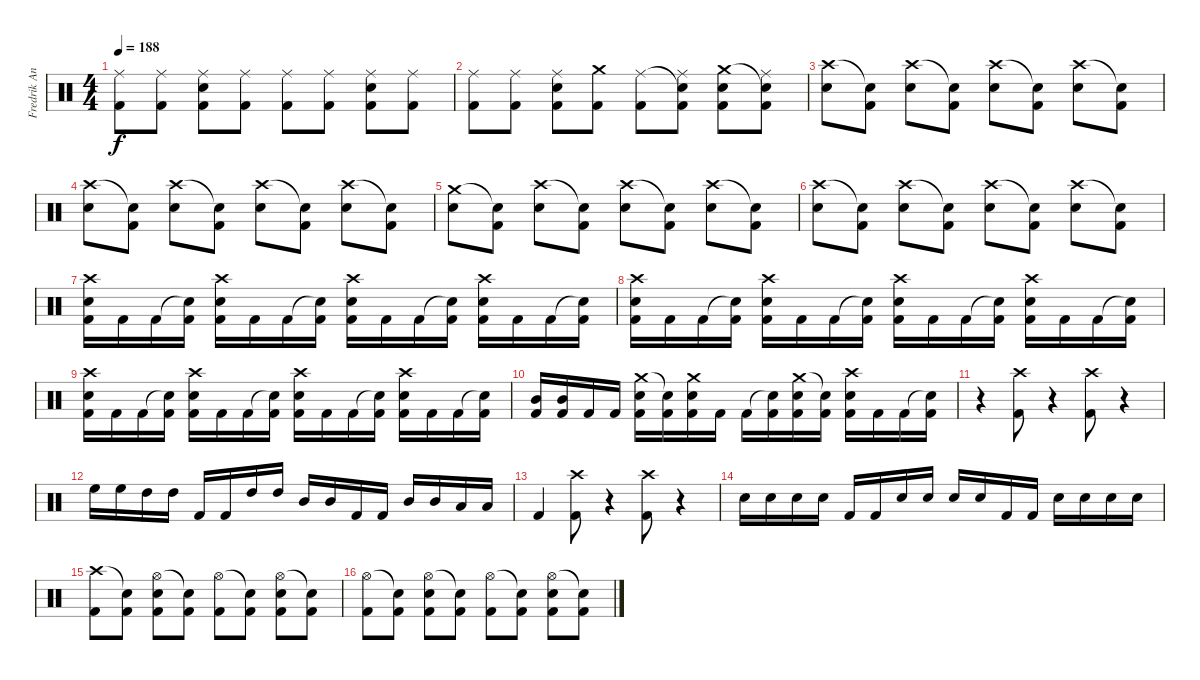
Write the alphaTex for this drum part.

\track ("Fredrik Andersson" "Fredrik An") {instrument percussion}
\staff {score}
\articulation defaults
\ts (4 4)
\tempo 188
\clef neutral
\ks c
("Ride (middle)" "Kick (hit) 2").8{dy f} ("Ride (middle)" "Kick (hit) 2").8 ("Ride (middle)" "Snare (hit) 2" "Kick (hit) 2").8 ("Ride (middle)" "Kick (hit) 2").8 ("Ride (middle)" "Kick (hit) 2").8 ("Ride (middle)" "Kick (hit) 2").8 ("Ride (middle)" "Snare (hit) 2" "Kick (hit) 2").8 ("Ride (middle)" "Kick (hit) 2").8 |
("Ride (middle)" "Kick (hit) 2").8 ("Ride (middle)" "Kick (hit) 2").8 ("Ride (middle)" "Snare (hit) 2" "Kick (hit) 2").8 ("Crash medium (hit)" "Kick (hit) 2").8 ("Ride (middle)" "Kick (hit) 2").8 ("Snare (hit)"{t} "Ride (middle)" "Kick (hit) 2").8 ("Crash medium (hit)" "Snare (hit) 2" "Kick (hit) 2").8 ("Snare (hit)"{t} "Ride (middle)" "Kick (hit) 2").8 |
("Crash high (hit)" "Snare (hit) 2").8 ("Snare (hit)"{t} "Kick (hit) 2").8 ("Crash high (hit)" "Snare (hit) 2").8 ("Snare (hit)"{t} "Kick (hit) 2").8 ("Crash high (hit)" "Snare (hit) 2").8 ("Snare (hit)"{t} "Kick (hit) 2").8 ("Crash high (hit)" "Snare (hit) 2").8 ("Snare (hit)"{t} "Kick (hit) 2").8 |
("Crash high (hit)" "Snare (hit) 2").8 ("Snare (hit)"{t} "Kick (hit) 2").8 ("Crash high (hit)" "Snare (hit) 2").8 ("Snare (hit)"{t} "Kick (hit) 2").8 ("Crash high (hit)" "Snare (hit) 2").8 ("Snare (hit)"{t} "Kick (hit) 2").8 ("Crash high (hit)" "Snare (hit) 2").8 ("Snare (hit)"{t} "Kick (hit) 2").8 |
("Crash medium (hit)" "Snare (hit) 2").8 ("Snare (hit)"{t} "Kick (hit) 2").8 ("Crash high (hit)" "Snare (hit) 2").8 ("Snare (hit)"{t} "Kick (hit) 2").8 ("Crash high (hit)" "Snare (hit) 2").8 ("Snare (hit)"{t} "Kick (hit) 2").8 ("Crash high (hit)" "Snare (hit) 2").8 ("Snare (hit)"{t} "Kick (hit) 2").8 |
("Crash high (hit)" "Snare (hit) 2").8 ("Snare (hit)"{t} "Kick (hit) 2").8 ("Crash high (hit)" "Snare (hit) 2").8 ("Snare (hit)"{t} "Kick (hit) 2").8 ("Crash high (hit)" "Snare (hit) 2").8 ("Snare (hit)"{t} "Kick (hit) 2").8 ("Crash high (hit)" "Snare (hit) 2").8 ("Snare (hit)"{t} "Kick (hit) 2").8 |
("Crash high (hit)" "Snare (hit) 2" "Kick (hit) 2").16 "Kick (hit) 2".16 "Kick (hit) 2".16 ("Snare (hit)"{t} "Kick (hit) 2").16 ("Crash high (hit)" "Snare (hit) 2" "Kick (hit) 2").16 "Kick (hit) 2".16 "Kick (hit) 2".16 ("Snare (hit)"{t} "Kick (hit) 2").16 ("Crash high (hit)" "Snare (hit) 2" "Kick (hit) 2").16 "Kick (hit) 2".16 "Kick (hit) 2".16 ("Snare (hit)"{t} "Kick (hit) 2").16 ("Crash high (hit)" "Snare (hit) 2" "Kick (hit) 2").16 "Kick (hit) 2".16 "Kick (hit) 2".16 ("Snare (hit)"{t} "Kick (hit) 2").16 |
("Crash high (hit)" "Snare (hit) 2" "Kick (hit) 2").16 "Kick (hit) 2".16 "Kick (hit) 2".16 ("Snare (hit)"{t} "Kick (hit) 2").16 ("Crash high (hit)" "Snare (hit) 2" "Kick (hit) 2").16 "Kick (hit) 2".16 "Kick (hit) 2".16 ("Snare (hit)"{t} "Kick (hit) 2").16 ("Crash high (hit)" "Snare (hit) 2" "Kick (hit) 2").16 "Kick (hit) 2".16 "Kick (hit) 2".16 ("Snare (hit)"{t} "Kick (hit) 2").16 ("Crash high (hit)" "Snare (hit) 2" "Kick (hit) 2").16 "Kick (hit) 2".16 "Kick (hit) 2".16 ("Snare (hit)"{t} "Kick (hit) 2").16 |
("Crash high (hit)" "Snare (hit) 2" "Kick (hit) 2").16 "Kick (hit) 2".16 "Kick (hit) 2".16 ("Snare (hit)"{t} "Kick (hit) 2").16 ("Crash high (hit)" "Snare (hit) 2" "Kick (hit) 2").16 "Kick (hit) 2".16 "Kick (hit) 2".16 ("Snare (hit)"{t} "Kick (hit) 2").16 ("Crash high (hit)" "Snare (hit) 2" "Kick (hit) 2").16 "Kick (hit) 2".16 "Kick (hit) 2".16 ("Snare (hit)"{t} "Kick (hit) 2").16 ("Crash high (hit)" "Snare (hit) 2" "Kick (hit) 2").16 "Kick (hit) 2".16 "Kick (hit) 2".16 ("Snare (hit)"{t} "Kick (hit) 2").16 |
("Mid Tom (hit)" "Kick (hit) 2").16 ("Mid Tom (hit)" "Kick (hit) 2").16 "Kick (hit) 2".16 "Kick (hit) 2".16 ("Crash medium (hit)" "Snare (hit) 2" "Kick (hit) 2").16 ("Snare (hit)"{t} "Kick (hit) 2").16 ("Crash medium (hit)" "Snare (hit) 2" "Kick (hit) 2").16 "Kick (hit) 2".16 "Kick (hit) 2".16 ("Snare (hit)"{t} "Kick (hit) 2").16 ("Crash medium (hit)" "Snare (hit) 2" "Kick (hit) 2").16 ("Snare (hit)"{t} "Kick (hit) 2").16 ("Crash high (hit)" "Snare (hit) 2" "Kick (hit) 2").16 "Kick (hit) 2".16 "Kick (hit) 2".16 ("Snare (hit)"{t} "Kick (hit) 2").16 |
r.4 ("Crash high (hit)" "Kick (hit) 2").8 r.4 ("Crash high (hit)" "Kick (hit) 2").8 r.4 |
"High Floor Tom (hit)".16 "High Floor Tom (hit)".16 "High Tom (hit)".16 "High Tom (hit)".16 "Kick (hit) 2".16 "Kick (hit) 2".16 "High Tom (hit)".16 "High Tom (hit)".16 "Mid Tom (hit)".16 "Mid Tom (hit)".16 "Kick (hit) 2".16 "Kick (hit) 2".16 "Mid Tom (hit)".16 "Mid Tom (hit)".16 "Low Tom (hit)".16 "Low Tom (hit)".16 |
"Kick (hit) 2".4 ("Crash high (hit)" "Kick (hit) 2").8 r.4 ("Crash high (hit)" "Kick (hit) 2").8 r.4 |
"Snare (hit) 2".16 "Snare (hit) 2".16 "Snare (hit) 2".16 "Snare (hit) 2".16 "Kick (hit) 2".16 "Kick (hit) 2".16 "Snare (hit) 2".16 "Snare (hit) 2".16 "Snare (hit) 2".16 "Snare (hit) 2".16 "Kick (hit) 2".16 "Kick (hit) 2".16 "Snare (hit) 2".16 "Snare (hit) 2".16 "Snare (hit) 2".16 "Snare (hit) 2".16 |
("Crash high (hit)" "Kick (hit) 2").8 ("Snare (hit)"{t} "Kick (hit) 2").8 ("Hi-Hat (open)" "Snare (hit) 2" "Kick (hit) 2").8 ("Snare (hit)"{t} "Kick (hit) 2").8 ("Hi-Hat (open)" "Kick (hit) 2").8 ("Snare (hit)"{t} "Kick (hit) 2").8 ("Hi-Hat (open)" "Snare (hit) 2" "Kick (hit) 2").8 ("Snare (hit)"{t} "Kick (hit) 2").8 |
("Hi-Hat (open)" "Kick (hit) 2").8 ("Snare (hit)"{t} "Kick (hit) 2").8 ("Hi-Hat (open)" "Snare (hit) 2" "Kick (hit) 2").8 ("Snare (hit)"{t} "Kick (hit) 2").8 ("Hi-Hat (open)" "Kick (hit) 2").8 ("Snare (hit)"{t} "Kick (hit) 2").8 ("Hi-Hat (open)" "Snare (hit) 2" "Kick (hit) 2").8 ("Snare (hit)"{t} "Kick (hit) 2").8
